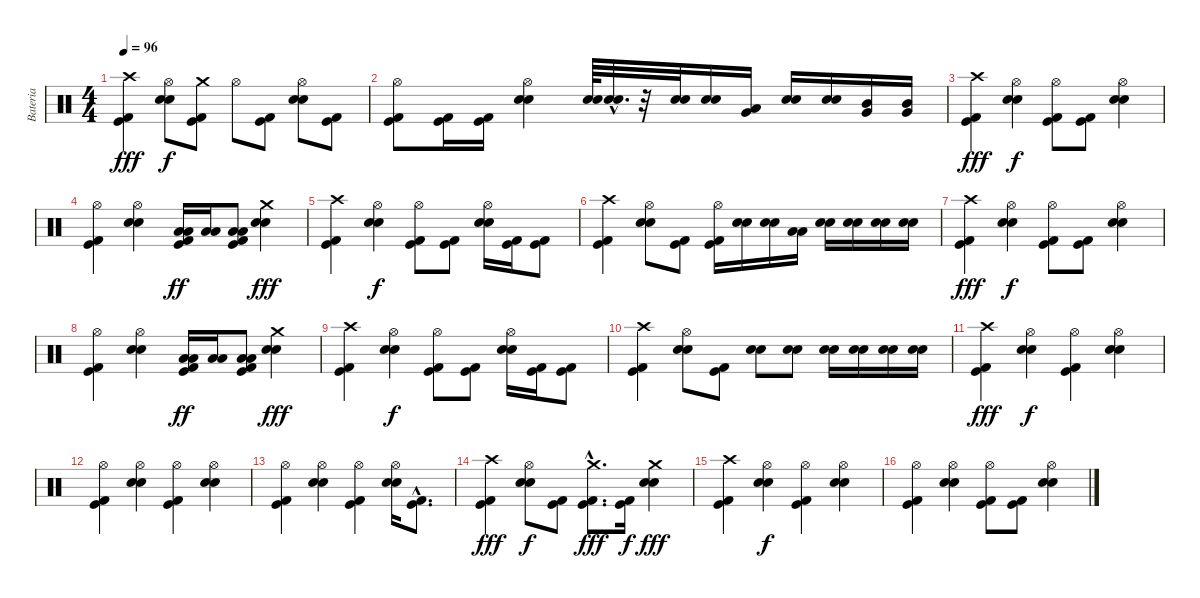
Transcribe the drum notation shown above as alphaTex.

\track ("Bateria" "Bateria") {instrument percussion}
\staff {score}
\articulation defaults
\ts (4 4)
\tempo 96
\clef neutral
\ks c
("Crash high (hit)" "Kick (hit) 2" "Kick (hit)").4{dy fff} ("Hi-Hat (open)" "Electric Snare (hit)" "Snare (hit) 2").8{dy f} ("Crash medium (hit)" "Kick (hit) 2" "Kick (hit)").8 "Hi-Hat (open)".8 ("Kick (hit) 2" "Kick (hit)").8 ("Hi-Hat (open)" "Electric Snare (hit)" "Snare (hit) 2").8 ("Kick (hit) 2" "Kick (hit)").8 |
("Hi-Hat (open)" "Kick (hit) 2" "Kick (hit)").8 ("Kick (hit) 2" "Kick (hit)").16 ("Kick (hit) 2" "Kick (hit)").16 ("Hi-Hat (open)" "Electric Snare (hit)" "Snare (hit) 2").4 ("Electric Snare (hit)" "Snare (hit) 2").64 ("Electric Snare (hit)"{hac} "Snare (hit) 2"{hac}).32{d} r.32 ("Electric Snare (hit)" "Snare (hit) 2").32 ("Electric Snare (hit)" "Snare (hit) 2").16 ("Low Tom (hit)" "Very Low Tom (hit)").16 ("Electric Snare (hit)" "Snare (hit) 2").16 ("Electric Snare (hit)" "Snare (hit) 2").16 ("Mid Tom (hit)" "Very Low Tom (hit)").16 ("Mid Tom (hit)" "Very Low Tom (hit)").16 |
("Crash high (hit)" "Kick (hit) 2" "Kick (hit)").4{dy fff} ("Hi-Hat (open)" "Electric Snare (hit)" "Snare (hit) 2").4{dy f} ("Hi-Hat (open)" "Kick (hit) 2" "Kick (hit)").8 ("Kick (hit) 2" "Kick (hit)").8 ("Hi-Hat (open)" "Electric Snare (hit)" "Snare (hit) 2").4 |
("Hi-Hat (open)" "Kick (hit) 2" "Kick (hit)").4 ("Hi-Hat (open)" "Electric Snare (hit)" "Snare (hit) 2").4 ("Low Tom (hit)" "Low Floor Tom (hit)" "Kick (hit) 2" "Kick (hit)").16{dy ff} ("Low Tom (hit)" "Low Floor Tom (hit)").16 ("Low Tom (hit)" "Low Floor Tom (hit)" "Kick (hit) 2" "Kick (hit)").8 ("Crash medium (hit)" "Electric Snare (hit)" "Snare (hit) 2").4{dy fff} |
("Crash high (hit)" "Kick (hit) 2" "Kick (hit)").4 ("Hi-Hat (open)" "Electric Snare (hit)" "Snare (hit) 2").4{dy f} ("Hi-Hat (open)" "Kick (hit) 2" "Kick (hit)").8 ("Kick (hit) 2" "Kick (hit)").8 ("Hi-Hat (open)" "Electric Snare (hit)" "Snare (hit) 2").16 ("Kick (hit) 2" "Kick (hit)").16 ("Kick (hit) 2" "Kick (hit)").8 |
("Crash high (hit)" "Kick (hit) 2" "Kick (hit)").4 ("Hi-Hat (open)" "Electric Snare (hit)" "Snare (hit) 2").8 ("Kick (hit) 2" "Kick (hit)").8 ("Hi-Hat (open)" "Kick (hit) 2" "Kick (hit)").16 ("Electric Snare (hit)" "Snare (hit) 2").16 ("Electric Snare (hit)" "Snare (hit) 2").16 ("Low Tom (hit)" "Low Floor Tom (hit)").16 ("Electric Snare (hit)" "Snare (hit) 2").16 ("Electric Snare (hit)" "Snare (hit) 2").16 ("Electric Snare (hit)" "Snare (hit) 2").16 ("Electric Snare (hit)" "Snare (hit) 2").16 |
("Crash high (hit)" "Kick (hit) 2" "Kick (hit)").4{dy fff} ("Hi-Hat (open)" "Electric Snare (hit)" "Snare (hit) 2").4{dy f} ("Hi-Hat (open)" "Kick (hit) 2" "Kick (hit)").8 ("Kick (hit) 2" "Kick (hit)").8 ("Hi-Hat (open)" "Electric Snare (hit)" "Snare (hit) 2").4 |
("Hi-Hat (open)" "Kick (hit) 2" "Kick (hit)").4 ("Hi-Hat (open)" "Electric Snare (hit)" "Snare (hit) 2").4 ("Low Tom (hit)" "Low Floor Tom (hit)" "Kick (hit) 2" "Kick (hit)").16{dy ff} ("Low Tom (hit)" "Low Floor Tom (hit)").16 ("Low Tom (hit)" "Low Floor Tom (hit)" "Kick (hit) 2" "Kick (hit)").8 ("Crash medium (hit)" "Electric Snare (hit)" "Snare (hit) 2").4{dy fff} |
("Crash high (hit)" "Kick (hit) 2" "Kick (hit)").4 ("Hi-Hat (open)" "Electric Snare (hit)" "Snare (hit) 2").4{dy f} ("Hi-Hat (open)" "Kick (hit) 2" "Kick (hit)").8 ("Kick (hit) 2" "Kick (hit)").8 ("Hi-Hat (open)" "Electric Snare (hit)" "Snare (hit) 2").16 ("Kick (hit) 2" "Kick (hit)").16 ("Kick (hit) 2" "Kick (hit)").8 |
("Crash high (hit)" "Kick (hit) 2" "Kick (hit)").4 ("Hi-Hat (open)" "Electric Snare (hit)" "Snare (hit) 2").8 ("Kick (hit) 2" "Kick (hit)").8 ("Electric Snare (hit)" "Snare (hit) 2").8 ("Electric Snare (hit)" "Snare (hit) 2").8 ("Electric Snare (hit)" "Snare (hit) 2").16 ("Electric Snare (hit)" "Snare (hit) 2").16 ("Electric Snare (hit)" "Snare (hit) 2").16 ("Electric Snare (hit)" "Snare (hit) 2").16 |
("Crash high (hit)" "Kick (hit) 2" "Kick (hit)").4{dy fff} ("Hi-Hat (open)" "Electric Snare (hit)" "Snare (hit) 2").4{dy f} ("Hi-Hat (open)" "Kick (hit) 2" "Kick (hit)").4 ("Hi-Hat (open)" "Electric Snare (hit)" "Snare (hit) 2").4 |
("Hi-Hat (open)" "Kick (hit) 2" "Kick (hit)").4 ("Hi-Hat (open)" "Electric Snare (hit)" "Snare (hit) 2").4 ("Hi-Hat (open)" "Kick (hit) 2" "Kick (hit)").4 ("Hi-Hat (open)" "Electric Snare (hit)" "Snare (hit) 2").4 |
("Hi-Hat (open)" "Kick (hit) 2" "Kick (hit)").4 ("Hi-Hat (open)" "Electric Snare (hit)" "Snare (hit) 2").4 ("Hi-Hat (open)" "Kick (hit) 2" "Kick (hit)").4 ("Hi-Hat (open)" "Electric Snare (hit)" "Snare (hit) 2").16 ("Kick (hit) 2"{hac} "Kick (hit)"{hac}).8{d} |
("Crash high (hit)" "Kick (hit) 2" "Kick (hit)").4{dy fff} ("Hi-Hat (open)" "Electric Snare (hit)" "Snare (hit) 2").8{dy f} ("Kick (hit) 2" "Kick (hit)").8 ("Crash medium (hit)"{hac} "Kick (hit) 2"{hac} "Kick (hit)"{hac}).8{d dy fff} ("Kick (hit) 2" "Kick (hit)").16{dy f} ("Crash medium (hit)" "Electric Snare (hit)" "Snare (hit) 2").4{dy fff} |
("Crash high (hit)" "Kick (hit) 2" "Kick (hit)").4 ("Hi-Hat (open)" "Electric Snare (hit)" "Snare (hit) 2").4{dy f} ("Hi-Hat (open)" "Kick (hit) 2" "Kick (hit)").4 ("Hi-Hat (open)" "Electric Snare (hit)" "Snare (hit) 2").4 |
("Hi-Hat (open)" "Kick (hit) 2" "Kick (hit)").4 ("Hi-Hat (open)" "Electric Snare (hit)" "Snare (hit) 2").4 ("Hi-Hat (open)" "Kick (hit) 2" "Kick (hit)").8 ("Kick (hit) 2" "Kick (hit)").8 ("Hi-Hat (open)" "Electric Snare (hit)" "Snare (hit) 2").4
